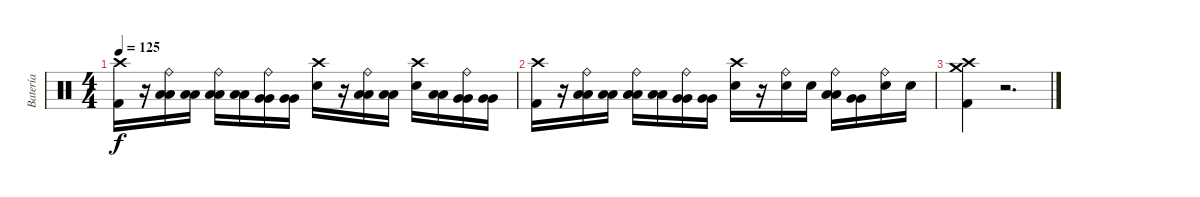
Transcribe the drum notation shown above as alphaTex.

\track ("Batería" "Batería") {instrument percussion}
\staff {score}
\articulation defaults
\ts (4 4)
\tempo 125
\clef neutral
\ks c
("Crash high (hit)" "Kick (hit) 2").16{dy f} r.16 ("Ride (bell)" "Low Tom (hit)" "Low Tom (hit)").16 ("Low Tom (hit)" "Low Tom (hit)").16 ("Ride (bell)" "Low Tom (hit)" "Low Tom (hit)").16 ("Low Tom (hit)" "Low Tom (hit)").16 ("Ride (bell)" "Very Low Tom (hit)" "Very Low Tom (hit)").16 ("Very Low Tom (hit)" "Very Low Tom (hit)").16 ("Crash high (hit)" "Snare (hit) 2").16 r.16 ("Ride (bell)" "Low Tom (hit)" "Low Tom (hit)").16 ("Low Tom (hit)" "Low Tom (hit)").16 ("Crash high (hit)" "Snare (hit) 2").16 ("Low Tom (hit)" "Low Tom (hit)").16 ("Ride (bell)" "Very Low Tom (hit)" "Very Low Tom (hit)").16 ("Very Low Tom (hit)" "Very Low Tom (hit)").16 |
("Crash high (hit)" "Kick (hit) 2").16 r.16 ("Ride (bell)" "Low Tom (hit)" "Low Tom (hit)").16 ("Low Tom (hit)" "Low Tom (hit)").16 ("Ride (bell)" "Low Tom (hit)" "Low Tom (hit)").16 ("Low Tom (hit)" "Low Tom (hit)").16 ("Ride (bell)" "Very Low Tom (hit)" "Very Low Tom (hit)").16 ("Very Low Tom (hit)" "Very Low Tom (hit)").16 ("Crash high (hit)" "Snare (hit) 2").16 r.16 ("Ride (bell)" "Snare (hit) 2").16 "Snare (hit) 2".16 ("Ride (bell)" "Low Tom (hit)" "Low Tom (hit)").16 ("Very Low Tom (hit)" "Very Low Tom (hit)").16 ("Ride (bell)" "Snare (hit) 2").16 "Snare (hit) 2".16 |
("Crash high (hit)" "Crash medium (hit)" "Kick (hit) 2").4 r.2{d}
